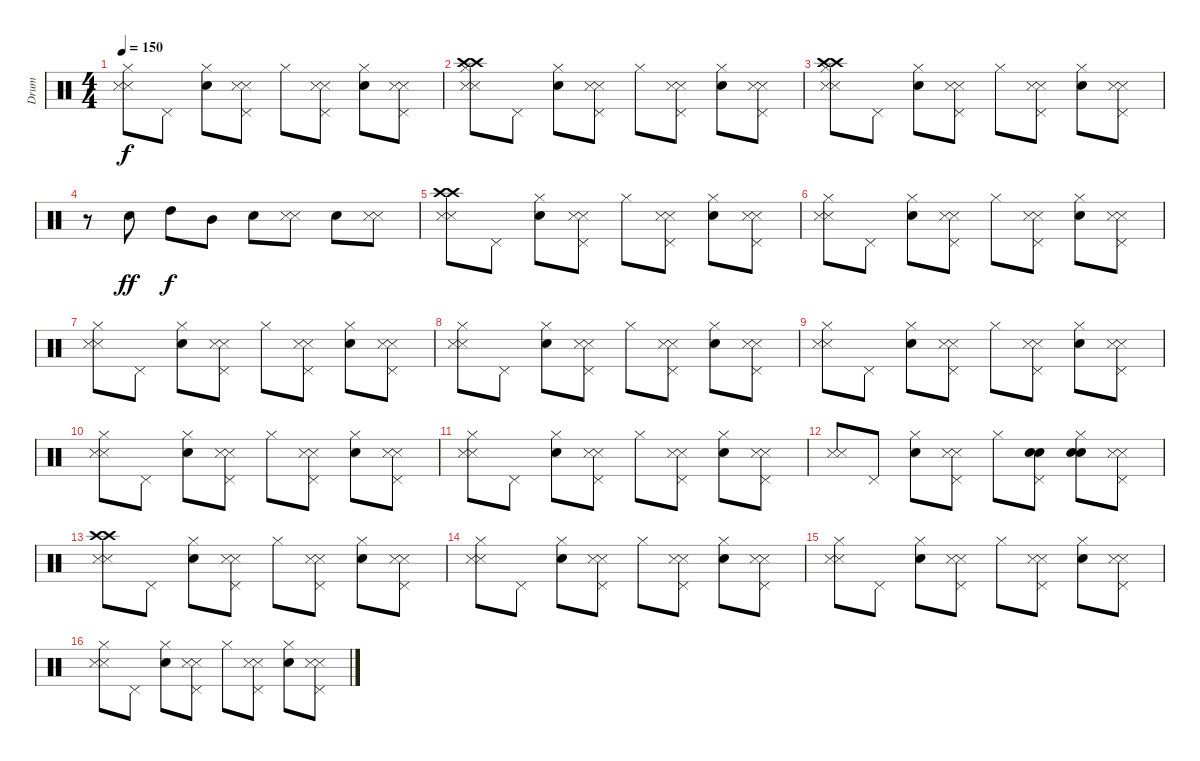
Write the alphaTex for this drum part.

\track ("Drum" "Drum") {instrument percussion}
\staff {score}
\articulation defaults
\ts (4 4)
\tempo 150
\clef neutral
\ks c
("Metronome (hit)" "Metronome (hit)" "Hi-Hat (closed)").8{dy f} "Pedal Hi-Hat (hit)".8 ("Electric Snare (hit)" "Hi-Hat (closed)").8 ("Metronome (hit)" "Metronome (hit)" "Pedal Hi-Hat (hit)").8 "Hi-Hat (closed)".8 ("Metronome (hit)" "Metronome (hit)" "Pedal Hi-Hat (hit)").8 ("Electric Snare (hit)" "Hi-Hat (closed)").8 ("Metronome (hit)" "Metronome (hit)" "Pedal Hi-Hat (hit)").8 |
("Metronome (hit)" "Metronome (hit)" "Crash high (hit)" "Crash high (hit)" "Hi-Hat (closed)").8 "Pedal Hi-Hat (hit)".8 ("Electric Snare (hit)" "Hi-Hat (closed)").8 ("Metronome (hit)" "Metronome (hit)" "Pedal Hi-Hat (hit)").8 "Hi-Hat (closed)".8 ("Metronome (hit)" "Metronome (hit)" "Pedal Hi-Hat (hit)").8 ("Electric Snare (hit)" "Hi-Hat (closed)").8 ("Metronome (hit)" "Metronome (hit)" "Pedal Hi-Hat (hit)").8 |
("Crash high (hit)" "Crash high (hit)" "Metronome (hit)" "Metronome (hit)" "Hi-Hat (closed)").8 "Pedal Hi-Hat (hit)".8 ("Electric Snare (hit)" "Hi-Hat (closed)").8 ("Metronome (hit)" "Metronome (hit)" "Pedal Hi-Hat (hit)").8 "Hi-Hat (closed)".8 ("Metronome (hit)" "Metronome (hit)" "Pedal Hi-Hat (hit)").8 ("Electric Snare (hit)" "Hi-Hat (closed)").8 ("Metronome (hit)" "Metronome (hit)" "Pedal Hi-Hat (hit)").8 |
r.8 "Electric Snare (hit)".8{dy ff} "High Tom (hit)".8{dy f} "Mid Tom (hit)".8 "Electric Snare (hit)".8 ("Metronome (hit)" "Metronome (hit)").8 "Electric Snare (hit)".8 ("Metronome (hit)" "Metronome (hit)").8 |
("Metronome (hit)" "Metronome (hit)" "Crash high (hit)" "Crash high (hit)").8 "Pedal Hi-Hat (hit)".8 ("Electric Snare (hit)" "Hi-Hat (closed)").8 ("Metronome (hit)" "Metronome (hit)" "Pedal Hi-Hat (hit)").8 "Hi-Hat (closed)".8 ("Metronome (hit)" "Metronome (hit)" "Pedal Hi-Hat (hit)").8 ("Electric Snare (hit)" "Hi-Hat (closed)").8 ("Metronome (hit)" "Metronome (hit)" "Pedal Hi-Hat (hit)").8 |
("Metronome (hit)" "Metronome (hit)" "Hi-Hat (closed)").8 "Pedal Hi-Hat (hit)".8 ("Electric Snare (hit)" "Hi-Hat (closed)").8 ("Metronome (hit)" "Metronome (hit)" "Pedal Hi-Hat (hit)").8 "Hi-Hat (closed)".8 ("Metronome (hit)" "Metronome (hit)" "Pedal Hi-Hat (hit)").8 ("Electric Snare (hit)" "Hi-Hat (closed)").8 ("Metronome (hit)" "Metronome (hit)" "Pedal Hi-Hat (hit)").8 |
("Metronome (hit)" "Metronome (hit)" "Hi-Hat (closed)").8 "Pedal Hi-Hat (hit)".8 ("Electric Snare (hit)" "Hi-Hat (closed)").8 ("Metronome (hit)" "Metronome (hit)" "Pedal Hi-Hat (hit)").8 "Hi-Hat (closed)".8 ("Metronome (hit)" "Metronome (hit)" "Pedal Hi-Hat (hit)").8 ("Electric Snare (hit)" "Hi-Hat (closed)").8 ("Metronome (hit)" "Metronome (hit)" "Pedal Hi-Hat (hit)").8 |
("Metronome (hit)" "Metronome (hit)" "Hi-Hat (closed)").8 "Pedal Hi-Hat (hit)".8 ("Electric Snare (hit)" "Hi-Hat (closed)").8 ("Metronome (hit)" "Metronome (hit)" "Pedal Hi-Hat (hit)").8 "Hi-Hat (closed)".8 ("Metronome (hit)" "Metronome (hit)" "Pedal Hi-Hat (hit)").8 ("Electric Snare (hit)" "Hi-Hat (closed)").8 ("Metronome (hit)" "Metronome (hit)" "Pedal Hi-Hat (hit)").8 |
("Metronome (hit)" "Metronome (hit)" "Hi-Hat (closed)").8 "Pedal Hi-Hat (hit)".8 ("Electric Snare (hit)" "Hi-Hat (closed)").8 ("Metronome (hit)" "Metronome (hit)" "Pedal Hi-Hat (hit)").8 "Hi-Hat (closed)".8 ("Metronome (hit)" "Metronome (hit)" "Pedal Hi-Hat (hit)").8 ("Electric Snare (hit)" "Hi-Hat (closed)").8 ("Metronome (hit)" "Metronome (hit)" "Pedal Hi-Hat (hit)").8 |
("Metronome (hit)" "Metronome (hit)" "Hi-Hat (closed)").8 "Pedal Hi-Hat (hit)".8 ("Electric Snare (hit)" "Hi-Hat (closed)").8 ("Metronome (hit)" "Metronome (hit)" "Pedal Hi-Hat (hit)").8 "Hi-Hat (closed)".8 ("Metronome (hit)" "Metronome (hit)" "Pedal Hi-Hat (hit)").8 ("Electric Snare (hit)" "Hi-Hat (closed)").8 ("Metronome (hit)" "Metronome (hit)" "Pedal Hi-Hat (hit)").8 |
("Metronome (hit)" "Metronome (hit)" "Hi-Hat (closed)").8 "Pedal Hi-Hat (hit)".8 ("Electric Snare (hit)" "Hi-Hat (closed)").8 ("Metronome (hit)" "Metronome (hit)" "Pedal Hi-Hat (hit)").8 "Hi-Hat (closed)".8 ("Metronome (hit)" "Metronome (hit)" "Pedal Hi-Hat (hit)").8 ("Electric Snare (hit)" "Hi-Hat (closed)").8 ("Metronome (hit)" "Metronome (hit)" "Pedal Hi-Hat (hit)").8 |
("Metronome (hit)" "Metronome (hit)").8 "Pedal Hi-Hat (hit)".8 ("Electric Snare (hit)" "Hi-Hat (closed)").8 ("Metronome (hit)" "Metronome (hit)" "Pedal Hi-Hat (hit)").8 "Hi-Hat (closed)".8 ("Electric Snare (hit)" "Electric Snare (hit)" "Pedal Hi-Hat (hit)").8 ("Electric Snare (hit)" "Electric Snare (hit)" "Hi-Hat (closed)").8 ("Metronome (hit)" "Metronome (hit)" "Pedal Hi-Hat (hit)").8 |
("Metronome (hit)" "Metronome (hit)" "Crash high (hit)" "Crash high (hit)").8 "Pedal Hi-Hat (hit)".8 ("Electric Snare (hit)" "Hi-Hat (closed)").8 ("Metronome (hit)" "Metronome (hit)" "Pedal Hi-Hat (hit)").8 "Hi-Hat (closed)".8 ("Metronome (hit)" "Metronome (hit)" "Pedal Hi-Hat (hit)").8 ("Electric Snare (hit)" "Hi-Hat (closed)").8 ("Metronome (hit)" "Metronome (hit)" "Pedal Hi-Hat (hit)").8 |
("Metronome (hit)" "Metronome (hit)" "Hi-Hat (closed)").8 "Pedal Hi-Hat (hit)".8 ("Electric Snare (hit)" "Hi-Hat (closed)").8 ("Metronome (hit)" "Metronome (hit)" "Pedal Hi-Hat (hit)").8 "Hi-Hat (closed)".8 ("Metronome (hit)" "Metronome (hit)" "Pedal Hi-Hat (hit)").8 ("Electric Snare (hit)" "Hi-Hat (closed)").8 ("Metronome (hit)" "Metronome (hit)" "Pedal Hi-Hat (hit)").8 |
("Metronome (hit)" "Metronome (hit)" "Hi-Hat (closed)").8 "Pedal Hi-Hat (hit)".8 ("Electric Snare (hit)" "Hi-Hat (closed)").8 ("Metronome (hit)" "Metronome (hit)" "Pedal Hi-Hat (hit)").8 "Hi-Hat (closed)".8 ("Metronome (hit)" "Metronome (hit)" "Pedal Hi-Hat (hit)").8 ("Electric Snare (hit)" "Hi-Hat (closed)").8 ("Metronome (hit)" "Metronome (hit)" "Pedal Hi-Hat (hit)").8 |
("Metronome (hit)" "Metronome (hit)" "Hi-Hat (closed)").8 "Pedal Hi-Hat (hit)".8 ("Electric Snare (hit)" "Hi-Hat (closed)").8 ("Metronome (hit)" "Metronome (hit)" "Pedal Hi-Hat (hit)").8 "Hi-Hat (closed)".8 ("Metronome (hit)" "Metronome (hit)" "Pedal Hi-Hat (hit)").8 ("Electric Snare (hit)" "Hi-Hat (closed)").8 ("Metronome (hit)" "Metronome (hit)" "Pedal Hi-Hat (hit)").8
